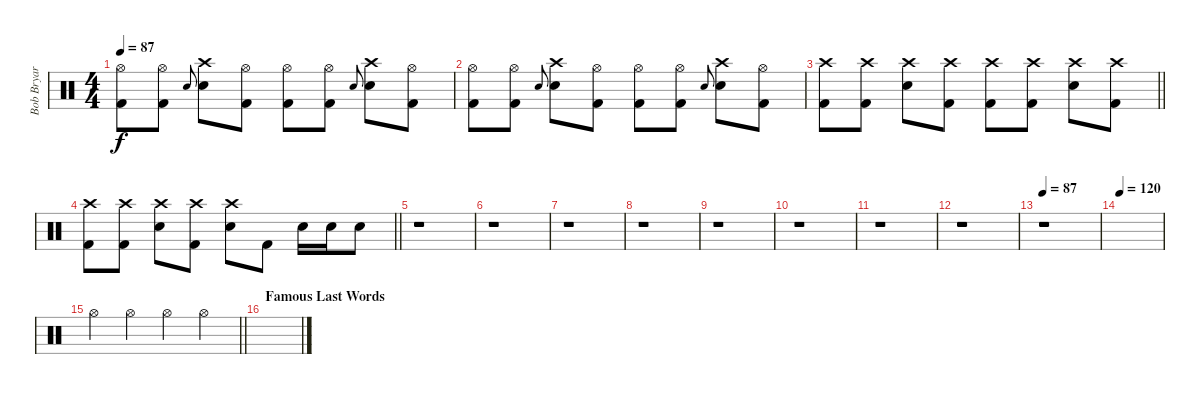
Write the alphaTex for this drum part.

\track ("Bob Bryar [Drums]" "Bob Bryar ") {instrument percussion}
\staff {score}
\articulation defaults
\ts (4 4)
\tempo 87
\clef neutral
\ks c
("Hi-Hat (open)" "Kick (hit) 2").8{dy f} ("Hi-Hat (open)" "Kick (hit) 2").8 "Electric Snare (hit)".8{gr onbeat} ("Crash high (hit)" "Electric Snare (hit)").8 ("Hi-Hat (open)" "Kick (hit) 2").8 ("Hi-Hat (open)" "Kick (hit) 2").8 ("Hi-Hat (open)" "Kick (hit) 2").8 "Electric Snare (hit)".8{gr onbeat} ("Crash high (hit)" "Electric Snare (hit)").8 ("Hi-Hat (open)" "Kick (hit) 2").8 |
("Hi-Hat (open)" "Kick (hit) 2").8 ("Hi-Hat (open)" "Kick (hit) 2").8 "Electric Snare (hit)".8{gr onbeat} ("Crash high (hit)" "Electric Snare (hit)").8 ("Hi-Hat (open)" "Kick (hit) 2").8 ("Hi-Hat (open)" "Kick (hit) 2").8 ("Hi-Hat (open)" "Kick (hit) 2").8 "Electric Snare (hit)".8{gr onbeat} ("Crash high (hit)" "Electric Snare (hit)").8 ("Hi-Hat (open)" "Kick (hit) 2").8 |
\barLineRight lightlight
("Crash high (hit)" "Kick (hit) 2").8 ("Crash high (hit)" "Kick (hit) 2").8 ("Crash high (hit)" "Electric Snare (hit)").8 ("Crash high (hit)" "Kick (hit) 2").8 ("Crash high (hit)" "Kick (hit) 2").8 ("Crash high (hit)" "Kick (hit) 2").8 ("Crash high (hit)" "Electric Snare (hit)").8 ("Crash high (hit)" "Kick (hit) 2").8 |
\barLineRight lightlight
("Crash high (hit)" "Kick (hit) 2").8 ("Crash high (hit)" "Kick (hit) 2").8 ("Crash high (hit)" "Electric Snare (hit)").8 ("Crash high (hit)" "Kick (hit) 2").8 ("Crash high (hit)" "Electric Snare (hit)").8 "Kick (hit) 2".8 "Electric Snare (hit)".16 "Electric Snare (hit)".16 "Electric Snare (hit)".8 |
r.1 |
r.1 |
r.1 |
r.1 |
r.1 |
r.1 |
r.1 |
r.1 |
\tempo 87
r.1 |
\tempo 120
|
\barLineRight lightlight "Hi-Hat (open)".4 "Hi-Hat (open)".4 "Hi-Hat (open)".4 "Hi-Hat (open)".4
|
\section ("" "Famous Last Words")
